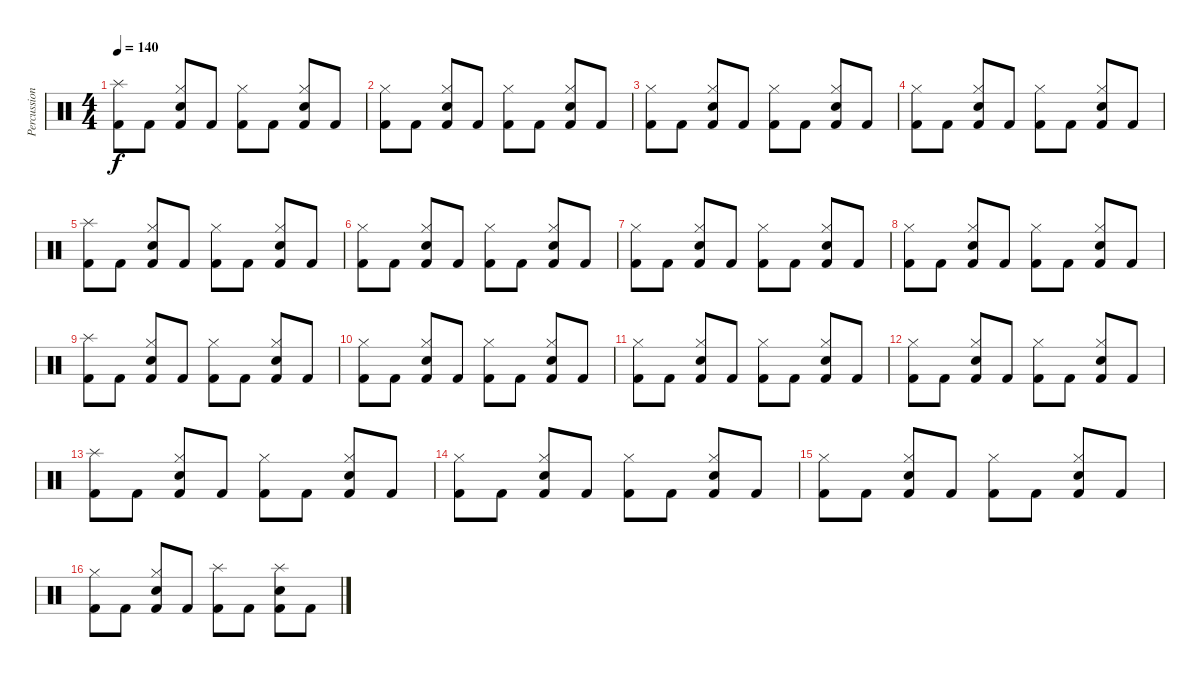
\track ("Percussion" "Percussion") {instrument percussion}
\staff {score}
\articulation defaults
\ts (4 4)
\tempo 140
\clef neutral
\ks c
("Splash (hit)" "Kick (hit) 2").8{dy f} "Kick (hit) 2".8 ("Hi-Hat (closed)" "Electric Snare (hit)" "Kick (hit) 2").8 "Kick (hit) 2".8 ("Hi-Hat (closed)" "Kick (hit) 2").8 "Kick (hit) 2".8 ("Hi-Hat (closed)" "Electric Snare (hit)" "Kick (hit) 2").8 "Kick (hit) 2".8 |
("Hi-Hat (closed)" "Kick (hit) 2").8 "Kick (hit) 2".8 ("Hi-Hat (closed)" "Electric Snare (hit)" "Kick (hit) 2").8 "Kick (hit) 2".8 ("Hi-Hat (closed)" "Kick (hit) 2").8 "Kick (hit) 2".8 ("Hi-Hat (closed)" "Electric Snare (hit)" "Kick (hit) 2").8 "Kick (hit) 2".8 |
("Hi-Hat (closed)" "Kick (hit) 2").8 "Kick (hit) 2".8 ("Hi-Hat (closed)" "Electric Snare (hit)" "Kick (hit) 2").8 "Kick (hit) 2".8 ("Hi-Hat (closed)" "Kick (hit) 2").8 "Kick (hit) 2".8 ("Hi-Hat (closed)" "Electric Snare (hit)" "Kick (hit) 2").8 "Kick (hit) 2".8 |
("Hi-Hat (closed)" "Kick (hit) 2").8 "Kick (hit) 2".8 ("Hi-Hat (closed)" "Electric Snare (hit)" "Kick (hit) 2").8 "Kick (hit) 2".8 ("Hi-Hat (closed)" "Kick (hit) 2").8 "Kick (hit) 2".8 ("Hi-Hat (closed)" "Electric Snare (hit)" "Kick (hit) 2").8 "Kick (hit) 2".8 |
("Splash (hit)" "Kick (hit) 2").8 "Kick (hit) 2".8 ("Hi-Hat (closed)" "Electric Snare (hit)" "Kick (hit) 2").8 "Kick (hit) 2".8 ("Hi-Hat (closed)" "Kick (hit) 2").8 "Kick (hit) 2".8 ("Hi-Hat (closed)" "Electric Snare (hit)" "Kick (hit) 2").8 "Kick (hit) 2".8 |
("Hi-Hat (closed)" "Kick (hit) 2").8 "Kick (hit) 2".8 ("Hi-Hat (closed)" "Electric Snare (hit)" "Kick (hit) 2").8 "Kick (hit) 2".8 ("Hi-Hat (closed)" "Kick (hit) 2").8 "Kick (hit) 2".8 ("Hi-Hat (closed)" "Electric Snare (hit)" "Kick (hit) 2").8 "Kick (hit) 2".8 |
("Hi-Hat (closed)" "Kick (hit) 2").8 "Kick (hit) 2".8 ("Hi-Hat (closed)" "Electric Snare (hit)" "Kick (hit) 2").8 "Kick (hit) 2".8 ("Hi-Hat (closed)" "Kick (hit) 2").8 "Kick (hit) 2".8 ("Hi-Hat (closed)" "Electric Snare (hit)" "Kick (hit) 2").8 "Kick (hit) 2".8 |
("Hi-Hat (closed)" "Kick (hit) 2").8 "Kick (hit) 2".8 ("Hi-Hat (closed)" "Electric Snare (hit)" "Kick (hit) 2").8 "Kick (hit) 2".8 ("Hi-Hat (closed)" "Kick (hit) 2").8 "Kick (hit) 2".8 ("Hi-Hat (closed)" "Electric Snare (hit)" "Kick (hit) 2").8 "Kick (hit) 2".8 |
("Splash (hit)" "Kick (hit) 2").8 "Kick (hit) 2".8 ("Hi-Hat (closed)" "Electric Snare (hit)" "Kick (hit) 2").8 "Kick (hit) 2".8 ("Hi-Hat (closed)" "Kick (hit) 2").8 "Kick (hit) 2".8 ("Hi-Hat (closed)" "Electric Snare (hit)" "Kick (hit) 2").8 "Kick (hit) 2".8 |
("Hi-Hat (closed)" "Kick (hit) 2").8 "Kick (hit) 2".8 ("Hi-Hat (closed)" "Electric Snare (hit)" "Kick (hit) 2").8 "Kick (hit) 2".8 ("Hi-Hat (closed)" "Kick (hit) 2").8 "Kick (hit) 2".8 ("Hi-Hat (closed)" "Electric Snare (hit)" "Kick (hit) 2").8 "Kick (hit) 2".8 |
("Hi-Hat (closed)" "Kick (hit) 2").8 "Kick (hit) 2".8 ("Hi-Hat (closed)" "Electric Snare (hit)" "Kick (hit) 2").8 "Kick (hit) 2".8 ("Hi-Hat (closed)" "Kick (hit) 2").8 "Kick (hit) 2".8 ("Hi-Hat (closed)" "Electric Snare (hit)" "Kick (hit) 2").8 "Kick (hit) 2".8 |
("Hi-Hat (closed)" "Kick (hit) 2").8 "Kick (hit) 2".8 ("Hi-Hat (closed)" "Electric Snare (hit)" "Kick (hit) 2").8 "Kick (hit) 2".8 ("Hi-Hat (closed)" "Kick (hit) 2").8 "Kick (hit) 2".8 ("Hi-Hat (closed)" "Electric Snare (hit)" "Kick (hit) 2").8 "Kick (hit) 2".8 |
("Splash (hit)" "Kick (hit) 2").8 "Kick (hit) 2".8 ("Hi-Hat (closed)" "Electric Snare (hit)" "Kick (hit) 2").8 "Kick (hit) 2".8 ("Hi-Hat (closed)" "Kick (hit) 2").8 "Kick (hit) 2".8 ("Hi-Hat (closed)" "Electric Snare (hit)" "Kick (hit) 2").8 "Kick (hit) 2".8 |
("Hi-Hat (closed)" "Kick (hit) 2").8 "Kick (hit) 2".8 ("Hi-Hat (closed)" "Electric Snare (hit)" "Kick (hit) 2").8 "Kick (hit) 2".8 ("Hi-Hat (closed)" "Kick (hit) 2").8 "Kick (hit) 2".8 ("Hi-Hat (closed)" "Electric Snare (hit)" "Kick (hit) 2").8 "Kick (hit) 2".8 |
("Hi-Hat (closed)" "Kick (hit) 2").8 "Kick (hit) 2".8 ("Hi-Hat (closed)" "Electric Snare (hit)" "Kick (hit) 2").8 "Kick (hit) 2".8 ("Hi-Hat (closed)" "Kick (hit) 2").8 "Kick (hit) 2".8 ("Hi-Hat (closed)" "Electric Snare (hit)" "Kick (hit) 2").8 "Kick (hit) 2".8 |
("Hi-Hat (closed)" "Kick (hit) 2").8 "Kick (hit) 2".8 ("Hi-Hat (closed)" "Electric Snare (hit)" "Kick (hit) 2").8 "Kick (hit) 2".8 ("Splash (hit)" "Kick (hit) 2").8 "Kick (hit) 2".8 ("Splash (hit)" "Electric Snare (hit)" "Kick (hit) 2").8 "Kick (hit) 2".8
